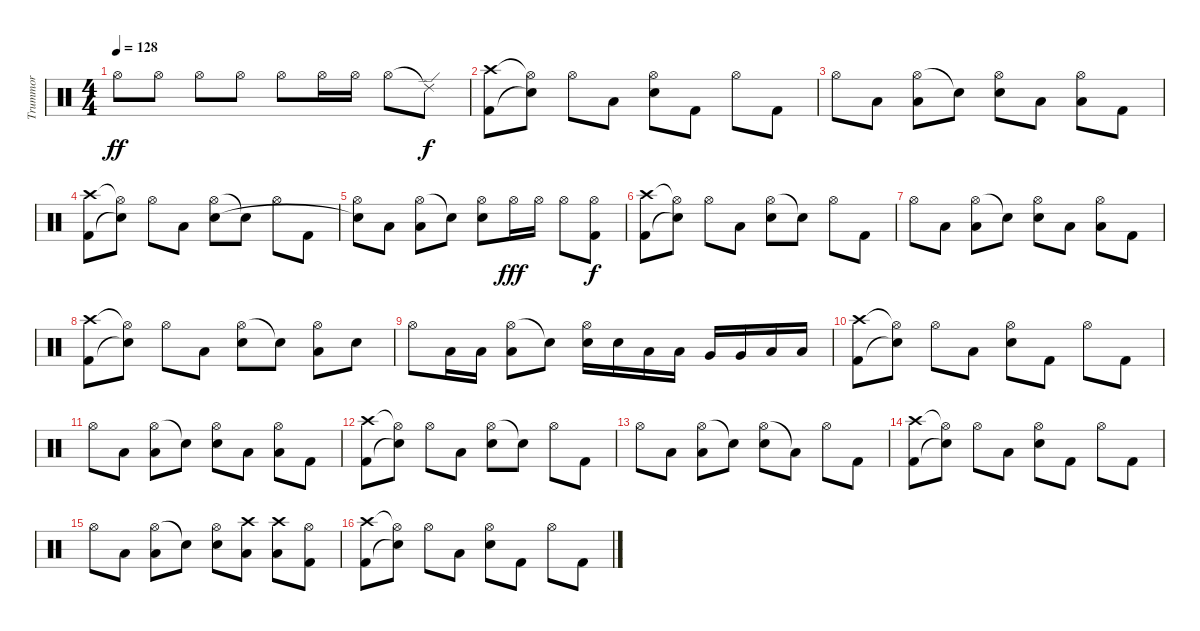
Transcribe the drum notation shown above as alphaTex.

\track ("Trummor" "Trummor") {instrument percussion}
\staff {score}
\articulation defaults
\ts (4 4)
\tempo 128
\clef neutral
\ks c "Hi-Hat (open)".8{dy ff} "Hi-Hat (open)".8 "Hi-Hat (open)".8 "Hi-Hat (open)".8 "Hi-Hat (open)".8 "Hi-Hat (open)".16 "Hi-Hat (open)".16 "Hi-Hat (open)".8 "Ride (edge) 2"{t}.8{dy f}
|
("Crash high (hit)" "Kick (hit) 2").8 ("Hi-Hat (open)"{t} "Snare (hit)"{t}).8 "Hi-Hat (open)".8 "Low Floor Tom (hit)".8 ("Hi-Hat (open)" "Snare (hit) 2").8 "Kick (hit) 2".8 "Hi-Hat (open)".8 "Kick (hit) 2".8 |
"Hi-Hat (open)".8 "Low Floor Tom (hit)".8 ("Hi-Hat (open)" "Low Floor Tom (hit)").8 "Snare (hit)"{t}.8 ("Hi-Hat (open)" "Snare (hit) 2").8 "Low Floor Tom (hit)".8 ("Hi-Hat (open)" "Low Floor Tom (hit)").8 "Kick (hit) 2".8 |
("Crash high (hit)" "Kick (hit) 2").8 ("Hi-Hat (open)"{t} "Snare (hit)"{t}).8 "Hi-Hat (open)".8 "Low Floor Tom (hit)".8 ("Hi-Hat (open)" "Snare (hit) 2").8 "Snare (hit)"{t}.8 "Hi-Hat (open)".8 "Kick (hit) 2".8 |
("Hi-Hat (open)" "Snare (hit)"{t}).8 "Low Floor Tom (hit)".8 ("Hi-Hat (open)" "Low Floor Tom (hit)").8 "Snare (hit)"{t}.8 ("Hi-Hat (open)" "Snare (hit) 2").8 "Hi-Hat (open)".16{dy fff} "Hi-Hat (open)".16 "Hi-Hat (open)".8 ("Hi-Hat (open)" "Kick (hit) 2").8{dy f} |
("Crash high (hit)" "Kick (hit) 2").8 ("Hi-Hat (open)"{t} "Snare (hit)"{t}).8 "Hi-Hat (open)".8 "Low Floor Tom (hit)".8 ("Hi-Hat (open)" "Snare (hit) 2").8 "Snare (hit)"{t}.8 "Hi-Hat (open)".8 "Kick (hit) 2".8 |
"Hi-Hat (open)".8 "Low Floor Tom (hit)".8 ("Hi-Hat (open)" "Low Floor Tom (hit)").8 "Snare (hit)"{t}.8 ("Hi-Hat (open)" "Snare (hit) 2").8 "Low Floor Tom (hit)".8 ("Hi-Hat (open)" "Low Floor Tom (hit)").8 "Kick (hit) 2".8 |
("Crash high (hit)" "Kick (hit) 2").8 ("Hi-Hat (open)"{t} "Snare (hit)"{t}).8 "Hi-Hat (open)".8 "Low Floor Tom (hit)".8 ("Hi-Hat (open)" "Snare (hit) 2").8 "Snare (hit)"{t}.8 ("Hi-Hat (open)" "Low Floor Tom (hit)").8 "Snare (hit) 2".8 |
"Hi-Hat (open)".8 "Low Floor Tom (hit)".16 "Low Floor Tom (hit)".16 ("Hi-Hat (open)" "Low Floor Tom (hit)").8 "Snare (hit)"{t}.8 ("Hi-Hat (open)" "Snare (hit) 2").16 "Snare (hit) 2".16 "Low Floor Tom (hit)".16 "Low Floor Tom (hit)".16 "Very Low Tom (hit)".16 "Very Low Tom (hit)".16 "Low Tom (hit)".16 "Low Tom (hit)".16 |
("Crash high (hit)" "Kick (hit) 2").8 ("Hi-Hat (open)"{t} "Snare (hit)"{t}).8 "Hi-Hat (open)".8 "Low Floor Tom (hit)".8 ("Hi-Hat (open)" "Snare (hit) 2").8 "Kick (hit) 2".8 "Hi-Hat (open)".8 "Kick (hit) 2".8 |
"Hi-Hat (open)".8 "Low Floor Tom (hit)".8 ("Hi-Hat (open)" "Low Floor Tom (hit)").8 "Snare (hit)"{t}.8 ("Hi-Hat (open)" "Snare (hit) 2").8 "Low Floor Tom (hit)".8 ("Hi-Hat (open)" "Low Floor Tom (hit)").8 "Kick (hit) 2".8 |
("Crash high (hit)" "Kick (hit) 2").8 ("Hi-Hat (open)"{t} "Snare (hit)"{t}).8 "Hi-Hat (open)".8 "Low Floor Tom (hit)".8 ("Hi-Hat (open)" "Snare (hit) 2").8 "Snare (hit)"{t}.8 "Hi-Hat (open)".8 "Kick (hit) 2".8 |
"Hi-Hat (open)".8 "Low Floor Tom (hit)".8 ("Hi-Hat (open)" "Low Floor Tom (hit)").8 "Snare (hit)"{t}.8 ("Hi-Hat (open)" "Snare (hit) 2").8 "Low Floor Tom (hit)"{t}.8 "Hi-Hat (open)".8 "Kick (hit) 2".8 |
("Crash high (hit)" "Kick (hit) 2").8 ("Hi-Hat (open)"{t} "Snare (hit)"{t}).8 "Hi-Hat (open)".8 "Low Floor Tom (hit)".8 ("Hi-Hat (open)" "Snare (hit) 2").8 "Kick (hit) 2".8 "Hi-Hat (open)".8 "Kick (hit) 2".8 |
"Hi-Hat (open)".8 "Low Floor Tom (hit)".8 ("Hi-Hat (open)" "Low Floor Tom (hit)").8 "Snare (hit)"{t}.8 ("Hi-Hat (open)" "Snare (hit) 2").8 ("Crash high (hit)" "Low Floor Tom (hit)").8 ("Crash high (hit)" "Low Floor Tom (hit)").8 ("Hi-Hat (open)" "Kick (hit) 2").8 |
("Crash high (hit)" "Kick (hit) 2").8 ("Hi-Hat (open)"{t} "Snare (hit)"{t}).8 "Hi-Hat (open)".8 "Low Floor Tom (hit)".8 ("Hi-Hat (open)" "Snare (hit) 2").8 "Kick (hit) 2".8 "Hi-Hat (open)".8 "Kick (hit) 2".8
